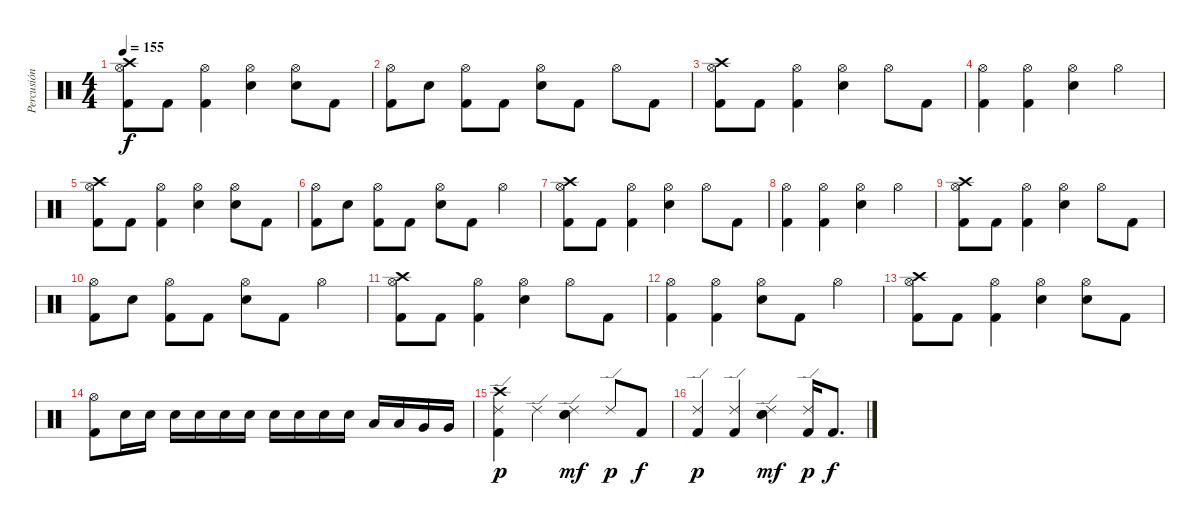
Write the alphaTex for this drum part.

\track ("Percusión" "Percusión") {instrument percussion}
\staff {score}
\articulation defaults
\ts (4 4)
\tempo 155
\clef neutral
\ks c
("Crash high (hit)" "Hi-Hat (open)" "Kick (hit) 2").8{dy f} "Kick (hit) 2".8 ("Hi-Hat (open)" "Kick (hit) 2").4 ("Hi-Hat (open)" "Snare (hit) 2").4 ("Hi-Hat (open)" "Snare (hit) 2").8 "Kick (hit) 2".8 |
("Hi-Hat (open)" "Kick (hit) 2").8 "Snare (hit) 2".8 ("Hi-Hat (open)" "Kick (hit) 2").8 "Kick (hit) 2".8 ("Hi-Hat (open)" "Snare (hit) 2").8 "Kick (hit) 2".8 "Hi-Hat (open)".8 "Kick (hit) 2".8 |
("Crash high (hit)" "Hi-Hat (open)" "Kick (hit) 2").8 "Kick (hit) 2".8 ("Hi-Hat (open)" "Kick (hit) 2").4 ("Hi-Hat (open)" "Snare (hit) 2").4 "Hi-Hat (open)".8 "Kick (hit) 2".8 |
("Hi-Hat (open)" "Kick (hit) 2").4 ("Hi-Hat (open)" "Kick (hit) 2").4 ("Hi-Hat (open)" "Snare (hit) 2").4 "Hi-Hat (open)".4 |
("Crash high (hit)" "Hi-Hat (open)" "Kick (hit) 2").8 "Kick (hit) 2".8 ("Hi-Hat (open)" "Kick (hit) 2").4 ("Hi-Hat (open)" "Snare (hit) 2").4 ("Hi-Hat (open)" "Snare (hit) 2").8 "Kick (hit) 2".8 |
("Hi-Hat (open)" "Kick (hit) 2").8 "Snare (hit) 2".8 ("Hi-Hat (open)" "Kick (hit) 2").8 "Kick (hit) 2".8 ("Hi-Hat (open)" "Snare (hit) 2").8 "Kick (hit) 2".8 "Hi-Hat (open)".4 |
("Crash high (hit)" "Hi-Hat (open)" "Kick (hit) 2").8 "Kick (hit) 2".8 ("Hi-Hat (open)" "Kick (hit) 2").4 ("Hi-Hat (open)" "Snare (hit) 2").4 "Hi-Hat (open)".8 "Kick (hit) 2".8 |
("Hi-Hat (open)" "Kick (hit) 2").4 ("Hi-Hat (open)" "Kick (hit) 2").4 ("Hi-Hat (open)" "Snare (hit) 2").4 "Hi-Hat (open)".4 |
("Crash high (hit)" "Hi-Hat (open)" "Kick (hit) 2").8 "Kick (hit) 2".8 ("Hi-Hat (open)" "Kick (hit) 2").4 ("Hi-Hat (open)" "Snare (hit) 2").4 "Hi-Hat (open)".8 "Kick (hit) 2".8 |
("Hi-Hat (open)" "Kick (hit) 2").8 "Snare (hit) 2".8 ("Hi-Hat (open)" "Kick (hit) 2").8 "Kick (hit) 2".8 ("Hi-Hat (open)" "Snare (hit) 2").8 "Kick (hit) 2".8 "Hi-Hat (open)".4 |
("Crash high (hit)" "Hi-Hat (open)" "Kick (hit) 2").8 "Kick (hit) 2".8 ("Hi-Hat (open)" "Kick (hit) 2").4 ("Hi-Hat (open)" "Snare (hit) 2").4 "Hi-Hat (open)".8 "Kick (hit) 2".8 |
("Hi-Hat (open)" "Kick (hit) 2").4 ("Hi-Hat (open)" "Kick (hit) 2").4 ("Hi-Hat (open)" "Snare (hit) 2").8 "Kick (hit) 2".8 "Hi-Hat (open)".4 |
("Crash high (hit)" "Hi-Hat (open)" "Kick (hit) 2").8 "Kick (hit) 2".8 ("Hi-Hat (open)" "Kick (hit) 2").4 ("Hi-Hat (open)" "Snare (hit) 2").4 ("Hi-Hat (open)" "Snare (hit) 2").8 "Kick (hit) 2".8 |
("Hi-Hat (open)" "Kick (hit) 2").8 "Snare (hit) 2".16 "Snare (hit) 2".16 "Snare (hit) 2".16 "Snare (hit) 2".16 "Snare (hit) 2".16 "Snare (hit) 2".16 "Snare (hit) 2".16 "Snare (hit) 2".16 "Snare (hit) 2".16 "Snare (hit) 2".16 "Low Tom (hit)".16 "Low Tom (hit)".16 "Very Low Tom (hit)".16 "Very Low Tom (hit)".16 |
("Crash high (hit)" "Ride (edge) 2" "Kick (hit) 2").4{dy p volume 8} "Ride (edge) 2".4 ("Ride (edge) 2" "Electric Snare (hit)" "Hand Clap (hit)").4{dy mf} "Ride (edge) 2".8{dy p} "Kick (hit) 2".8{dy f} |
("Ride (edge) 2" "Kick (hit) 2").4{dy p} ("Ride (edge) 2" "Kick (hit) 2").4 ("Ride (edge) 2" "Electric Snare (hit)" "Hand Clap (hit)").4{dy mf} ("Ride (edge) 2" "Kick (hit) 2").16{dy p} "Kick (hit) 2".8{d dy f}
